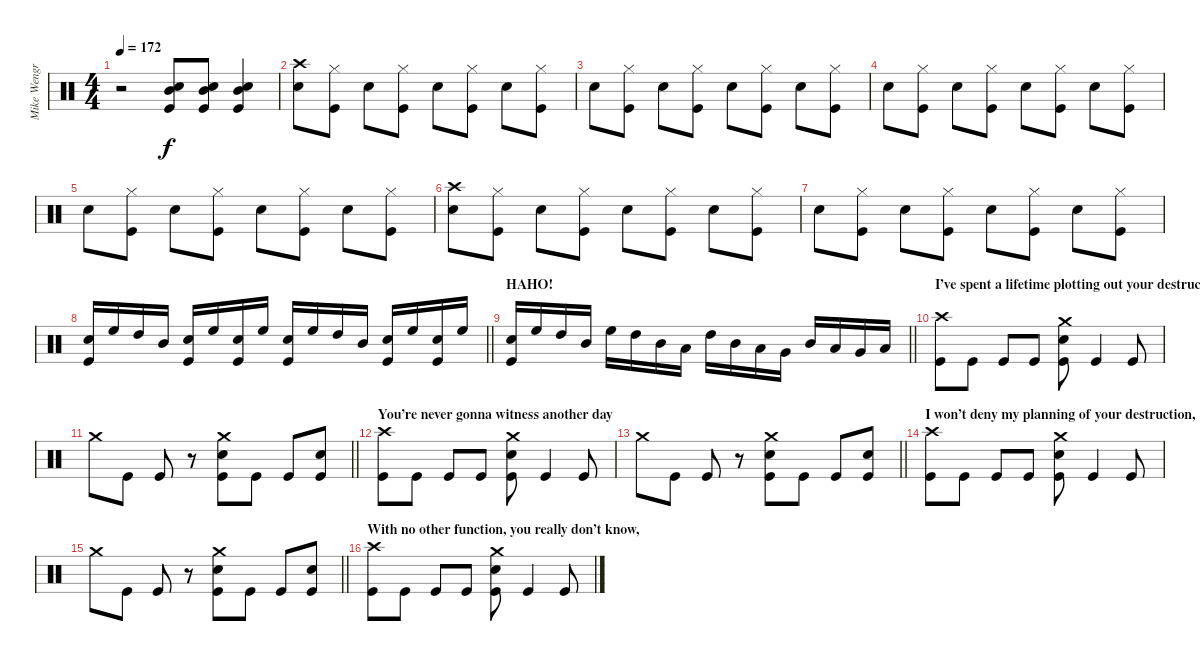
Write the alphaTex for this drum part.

\track ("Mike Wengren - Drums" "Mike Wengr") {instrument percussion}
\staff {score}
\articulation defaults
\ts (4 4)
\tempo 172
\clef neutral
\ks c
r.2{dy f} ("Snare (hit) 2" "Mid Tom (hit)" "Kick (hit)").8 ("Snare (hit) 2" "Mid Tom (hit)" "Kick (hit)").8 ("Snare (hit) 2" "Mid Tom (hit)" "Kick (hit)").4 |
("Crash high (hit)" "Snare (hit) 2").8 ("Hi-Hat (closed)" "Kick (hit)").8 "Snare (hit) 2".8 ("Hi-Hat (closed)" "Kick (hit)").8 "Snare (hit) 2".8 ("Hi-Hat (closed)" "Kick (hit)").8 "Snare (hit) 2".8 ("Hi-Hat (closed)" "Kick (hit)").8 |
"Snare (hit) 2".8 ("Hi-Hat (closed)" "Kick (hit)").8 "Snare (hit) 2".8 ("Hi-Hat (closed)" "Kick (hit)").8 "Snare (hit) 2".8 ("Hi-Hat (closed)" "Kick (hit)").8 "Snare (hit) 2".8 ("Hi-Hat (closed)" "Kick (hit)").8 |
"Snare (hit) 2".8 ("Hi-Hat (closed)" "Kick (hit)").8 "Snare (hit) 2".8 ("Hi-Hat (closed)" "Kick (hit)").8 "Snare (hit) 2".8 ("Hi-Hat (closed)" "Kick (hit)").8 "Snare (hit) 2".8 ("Hi-Hat (closed)" "Kick (hit)").8 |
"Snare (hit) 2".8 ("Hi-Hat (closed)" "Kick (hit)").8 "Snare (hit) 2".8 ("Hi-Hat (closed)" "Kick (hit)").8 "Snare (hit) 2".8 ("Hi-Hat (closed)" "Kick (hit)").8 "Snare (hit) 2".8 ("Hi-Hat (closed)" "Kick (hit)").8 |
("Crash high (hit)" "Snare (hit) 2").8 ("Hi-Hat (closed)" "Kick (hit)").8 "Snare (hit) 2".8 ("Hi-Hat (closed)" "Kick (hit)").8 "Snare (hit) 2".8 ("Hi-Hat (closed)" "Kick (hit)").8 "Snare (hit) 2".8 ("Hi-Hat (closed)" "Kick (hit)").8 |
"Snare (hit) 2".8 ("Hi-Hat (closed)" "Kick (hit)").8 "Snare (hit) 2".8 ("Hi-Hat (closed)" "Kick (hit)").8 "Snare (hit) 2".8 ("Hi-Hat (closed)" "Kick (hit)").8 "Snare (hit) 2".8 ("Hi-Hat (closed)" "Kick (hit)").8 |
\barLineRight lightlight
("Snare (hit) 2" "Kick (hit)").16 "High Floor Tom (hit)".16 "High Tom (hit)".16 "Mid Tom (hit)".16 ("Snare (hit) 2" "Kick (hit)").16 "High Floor Tom (hit)".16 ("Snare (hit) 2" "Kick (hit)").16 "High Floor Tom (hit)".16 ("Snare (hit) 2" "Kick (hit)").16 "High Floor Tom (hit)".16 "High Tom (hit)".16 "Mid Tom (hit)".16 ("Snare (hit) 2" "Kick (hit)").16 "High Floor Tom (hit)".16 ("Snare (hit) 2" "Kick (hit)").16 "High Floor Tom (hit)".16 |
\section ("" "HAHO!")
\barLineRight lightlight
("Snare (hit) 2" "Kick (hit)").16 "High Floor Tom (hit)".16 "High Tom (hit)".16 "Mid Tom (hit)".16 "High Floor Tom (hit)".16 "High Tom (hit)".16 "Mid Tom (hit)".16 "Low Tom (hit)".16 "High Tom (hit)".16 "Mid Tom (hit)".16 "Low Tom (hit)".16 "Very Low Tom (hit)".16 "Mid Tom (hit)".16 "Low Tom (hit)".16 "Very Low Tom (hit)".16 "Low Floor Tom (hit)".16 |
\section ("" "I’ve spent a lifetime plotting out your destruction,")
("Crash high (hit)" "Kick (hit)").8 "Kick (hit)".8 "Kick (hit)".8 "Kick (hit)".8 ("Crash medium (hit)" "Snare (hit) 2" "Kick (hit)").8 "Kick (hit)".4 "Kick (hit)".8 |
\barLineRight lightlight "Crash medium (hit)".8 "Kick (hit)".8 "Kick (hit)".8
r.8 ("Crash medium (hit)" "Snare (hit) 2" "Kick (hit)").8 "Kick (hit)".8 "Kick (hit)".8 ("Snare (hit) 2" "Kick (hit)").8 |
\section ("" "You’re never gonna witness another day")
("Crash high (hit)" "Kick (hit)").8 "Kick (hit)".8 "Kick (hit)".8 "Kick (hit)".8 ("Crash medium (hit)" "Snare (hit) 2" "Kick (hit)").8 "Kick (hit)".4 "Kick (hit)".8 |
\barLineRight lightlight "Crash medium (hit)".8 "Kick (hit)".8 "Kick (hit)".8
r.8 ("Crash medium (hit)" "Snare (hit) 2" "Kick (hit)").8 "Kick (hit)".8 "Kick (hit)".8 ("Snare (hit) 2" "Kick (hit)").8 |
\section ("" "I won’t deny my planning of your destruction,")
("Crash high (hit)" "Kick (hit)").8 "Kick (hit)".8 "Kick (hit)".8 "Kick (hit)".8 ("Crash medium (hit)" "Snare (hit) 2" "Kick (hit)").8 "Kick (hit)".4 "Kick (hit)".8 |
\barLineRight lightlight "Crash medium (hit)".8 "Kick (hit)".8 "Kick (hit)".8
r.8 ("Crash medium (hit)" "Snare (hit) 2" "Kick (hit)").8 "Kick (hit)".8 "Kick (hit)".8 ("Snare (hit) 2" "Kick (hit)").8 |
\section ("" "With no other function, you really don’t know,")
("Crash high (hit)" "Kick (hit)").8 "Kick (hit)".8 "Kick (hit)".8 "Kick (hit)".8 ("Crash medium (hit)" "Snare (hit) 2" "Kick (hit)").8 "Kick (hit)".4 "Kick (hit)".8
